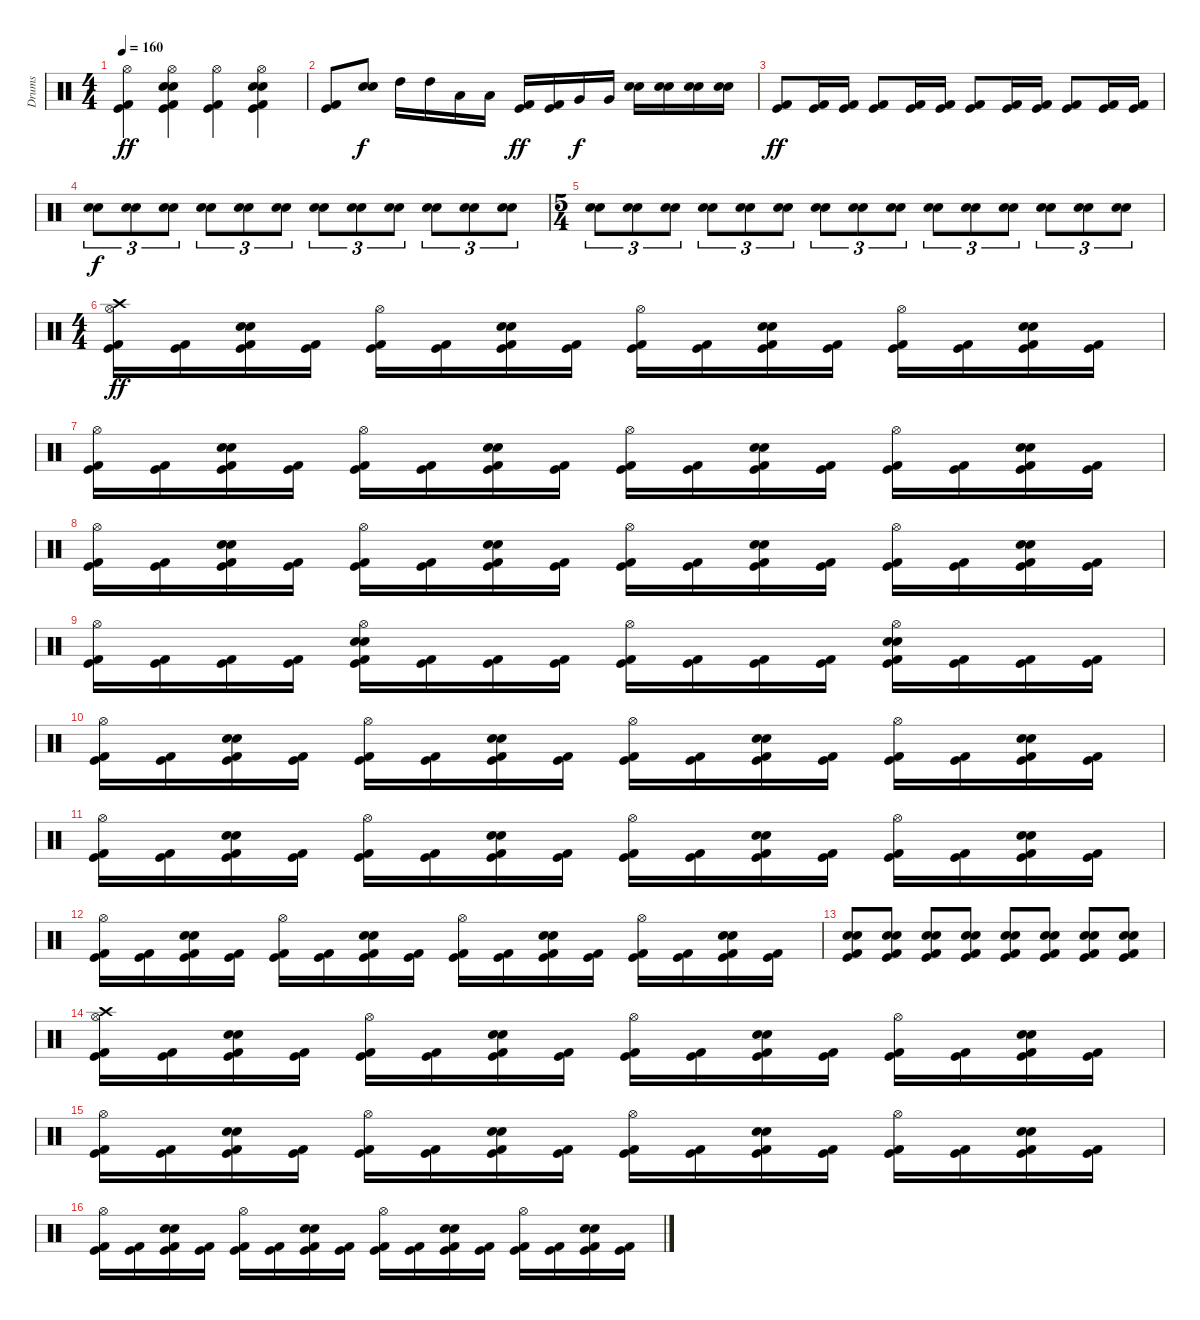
\track ("Drums" "Drums") {instrument percussion}
\staff {score}
\articulation defaults
\ts (4 4)
\tempo 160
\clef neutral
\ks c
("Hi-Hat (open)" "Kick (hit) 2" "Kick (hit)").4{dy ff} ("Hi-Hat (open)" "Snare (hit) 2" "Electric Snare (hit)" "Kick (hit) 2" "Kick (hit)").4 ("Hi-Hat (open)" "Kick (hit) 2" "Kick (hit)").4 ("Hi-Hat (open)" "Snare (hit) 2" "Electric Snare (hit)" "Kick (hit) 2" "Kick (hit)").4 |
("Kick (hit) 2" "Kick (hit)").8 ("Snare (hit) 2" "Electric Snare (hit)").8{dy f} "High Tom (hit)".16 "High Tom (hit)".16 "Low Tom (hit)".16 "Low Tom (hit)".16 ("Kick (hit) 2" "Kick (hit)").16{dy ff} ("Kick (hit) 2" "Kick (hit)").16 "Very Low Tom (hit)".16{dy f} "Very Low Tom (hit)".16 ("Electric Snare (hit)" "Snare (hit) 2").16 ("Electric Snare (hit)" "Snare (hit) 2").16 ("Electric Snare (hit)" "Snare (hit) 2").16 ("Electric Snare (hit)" "Snare (hit) 2").16 |
("Kick (hit) 2" "Kick (hit)").8{dy ff} ("Kick (hit) 2" "Kick (hit)").16 ("Kick (hit) 2" "Kick (hit)").16 ("Kick (hit) 2" "Kick (hit)").8 ("Kick (hit) 2" "Kick (hit)").16 ("Kick (hit) 2" "Kick (hit)").16 ("Kick (hit) 2" "Kick (hit)").8 ("Kick (hit) 2" "Kick (hit)").16 ("Kick (hit) 2" "Kick (hit)").16 ("Kick (hit) 2" "Kick (hit)").8 ("Kick (hit) 2" "Kick (hit)").16 ("Kick (hit) 2" "Kick (hit)").16 |
("Electric Snare (hit)" "Snare (hit) 2").8{tu (3 2) dy f} ("Electric Snare (hit)" "Snare (hit) 2").8{tu (3 2)} ("Electric Snare (hit)" "Snare (hit) 2").8{tu (3 2)} ("Electric Snare (hit)" "Snare (hit) 2").8{tu (3 2)} ("Electric Snare (hit)" "Snare (hit) 2").8{tu (3 2)} ("Electric Snare (hit)" "Snare (hit) 2").8{tu (3 2)} ("Electric Snare (hit)" "Snare (hit) 2").8{tu (3 2)} ("Electric Snare (hit)" "Snare (hit) 2").8{tu (3 2)} ("Electric Snare (hit)" "Snare (hit) 2").8{tu (3 2)} ("Electric Snare (hit)" "Snare (hit) 2").8{tu (3 2)} ("Electric Snare (hit)" "Snare (hit) 2").8{tu (3 2)} ("Electric Snare (hit)" "Snare (hit) 2").8{tu (3 2)} |
\ts (5 4)
("Electric Snare (hit)" "Snare (hit) 2").8{tu (3 2)} ("Electric Snare (hit)" "Snare (hit) 2").8{tu (3 2)} ("Electric Snare (hit)" "Snare (hit) 2").8{tu (3 2)} ("Electric Snare (hit)" "Snare (hit) 2").8{tu (3 2)} ("Electric Snare (hit)" "Snare (hit) 2").8{tu (3 2)} ("Electric Snare (hit)" "Snare (hit) 2").8{tu (3 2)} ("Electric Snare (hit)" "Snare (hit) 2").8{tu (3 2)} ("Electric Snare (hit)" "Snare (hit) 2").8{tu (3 2)} ("Electric Snare (hit)" "Snare (hit) 2").8{tu (3 2)} ("Electric Snare (hit)" "Snare (hit) 2").8{tu (3 2)} ("Electric Snare (hit)" "Snare (hit) 2").8{tu (3 2)} ("Electric Snare (hit)" "Snare (hit) 2").8{tu (3 2)} ("Electric Snare (hit)" "Snare (hit) 2").8{tu (3 2)} ("Electric Snare (hit)" "Snare (hit) 2").8{tu (3 2)} ("Electric Snare (hit)" "Snare (hit) 2").8{tu (3 2)} |
\ts (4 4)
("Hi-Hat (open)" "Crash high (hit)" "Kick (hit) 2" "Kick (hit)").16{dy ff} ("Kick (hit) 2" "Kick (hit)").16 ("Electric Snare (hit)" "Snare (hit) 2" "Kick (hit) 2" "Kick (hit)").16 ("Kick (hit) 2" "Kick (hit)").16 ("Hi-Hat (open)" "Kick (hit) 2" "Kick (hit)").16 ("Kick (hit) 2" "Kick (hit)").16 ("Electric Snare (hit)" "Snare (hit) 2" "Kick (hit) 2" "Kick (hit)").16 ("Kick (hit) 2" "Kick (hit)").16 ("Hi-Hat (open)" "Kick (hit) 2" "Kick (hit)").16 ("Kick (hit) 2" "Kick (hit)").16 ("Electric Snare (hit)" "Snare (hit) 2" "Kick (hit) 2" "Kick (hit)").16 ("Kick (hit) 2" "Kick (hit)").16 ("Hi-Hat (open)" "Kick (hit) 2" "Kick (hit)").16 ("Kick (hit) 2" "Kick (hit)").16 ("Electric Snare (hit)" "Snare (hit) 2" "Kick (hit) 2" "Kick (hit)").16 ("Kick (hit) 2" "Kick (hit)").16 |
("Hi-Hat (open)" "Kick (hit) 2" "Kick (hit)").16 ("Kick (hit) 2" "Kick (hit)").16 ("Electric Snare (hit)" "Snare (hit) 2" "Kick (hit) 2" "Kick (hit)").16 ("Kick (hit) 2" "Kick (hit)").16 ("Hi-Hat (open)" "Kick (hit) 2" "Kick (hit)").16 ("Kick (hit) 2" "Kick (hit)").16 ("Electric Snare (hit)" "Snare (hit) 2" "Kick (hit) 2" "Kick (hit)").16 ("Kick (hit) 2" "Kick (hit)").16 ("Hi-Hat (open)" "Kick (hit) 2" "Kick (hit)").16 ("Kick (hit) 2" "Kick (hit)").16 ("Electric Snare (hit)" "Snare (hit) 2" "Kick (hit) 2" "Kick (hit)").16 ("Kick (hit) 2" "Kick (hit)").16 ("Hi-Hat (open)" "Kick (hit) 2" "Kick (hit)").16 ("Kick (hit) 2" "Kick (hit)").16 ("Electric Snare (hit)" "Snare (hit) 2" "Kick (hit) 2" "Kick (hit)").16 ("Kick (hit) 2" "Kick (hit)").16 |
("Hi-Hat (open)" "Kick (hit) 2" "Kick (hit)").16 ("Kick (hit) 2" "Kick (hit)").16 ("Electric Snare (hit)" "Snare (hit) 2" "Kick (hit) 2" "Kick (hit)").16 ("Kick (hit) 2" "Kick (hit)").16 ("Hi-Hat (open)" "Kick (hit) 2" "Kick (hit)").16 ("Kick (hit) 2" "Kick (hit)").16 ("Electric Snare (hit)" "Snare (hit) 2" "Kick (hit) 2" "Kick (hit)").16 ("Kick (hit) 2" "Kick (hit)").16 ("Hi-Hat (open)" "Kick (hit) 2" "Kick (hit)").16 ("Kick (hit) 2" "Kick (hit)").16 ("Electric Snare (hit)" "Snare (hit) 2" "Kick (hit) 2" "Kick (hit)").16 ("Kick (hit) 2" "Kick (hit)").16 ("Hi-Hat (open)" "Kick (hit) 2" "Kick (hit)").16 ("Kick (hit) 2" "Kick (hit)").16 ("Electric Snare (hit)" "Snare (hit) 2" "Kick (hit) 2" "Kick (hit)").16 ("Kick (hit) 2" "Kick (hit)").16 |
("Hi-Hat (open)" "Kick (hit) 2" "Kick (hit)").16 ("Kick (hit) 2" "Kick (hit)").16 ("Kick (hit) 2" "Kick (hit)").16 ("Kick (hit) 2" "Kick (hit)").16 ("Hi-Hat (open)" "Snare (hit) 2" "Electric Snare (hit)" "Kick (hit) 2" "Kick (hit)").16 ("Kick (hit) 2" "Kick (hit)").16 ("Kick (hit) 2" "Kick (hit)").16 ("Kick (hit) 2" "Kick (hit)").16 ("Hi-Hat (open)" "Kick (hit) 2" "Kick (hit)").16 ("Kick (hit) 2" "Kick (hit)").16 ("Kick (hit) 2" "Kick (hit)").16 ("Kick (hit) 2" "Kick (hit)").16 ("Hi-Hat (open)" "Snare (hit) 2" "Electric Snare (hit)" "Kick (hit) 2" "Kick (hit)").16 ("Kick (hit) 2" "Kick (hit)").16 ("Kick (hit) 2" "Kick (hit)").16 ("Kick (hit) 2" "Kick (hit)").16 |
("Hi-Hat (open)" "Kick (hit) 2" "Kick (hit)").16 ("Kick (hit) 2" "Kick (hit)").16 ("Electric Snare (hit)" "Snare (hit) 2" "Kick (hit) 2" "Kick (hit)").16 ("Kick (hit) 2" "Kick (hit)").16 ("Hi-Hat (open)" "Kick (hit) 2" "Kick (hit)").16 ("Kick (hit) 2" "Kick (hit)").16 ("Electric Snare (hit)" "Snare (hit) 2" "Kick (hit) 2" "Kick (hit)").16 ("Kick (hit) 2" "Kick (hit)").16 ("Hi-Hat (open)" "Kick (hit) 2" "Kick (hit)").16 ("Kick (hit) 2" "Kick (hit)").16 ("Electric Snare (hit)" "Snare (hit) 2" "Kick (hit) 2" "Kick (hit)").16 ("Kick (hit) 2" "Kick (hit)").16 ("Hi-Hat (open)" "Kick (hit) 2" "Kick (hit)").16 ("Kick (hit) 2" "Kick (hit)").16 ("Electric Snare (hit)" "Snare (hit) 2" "Kick (hit) 2" "Kick (hit)").16 ("Kick (hit) 2" "Kick (hit)").16 |
("Hi-Hat (open)" "Kick (hit) 2" "Kick (hit)").16 ("Kick (hit) 2" "Kick (hit)").16 ("Electric Snare (hit)" "Snare (hit) 2" "Kick (hit) 2" "Kick (hit)").16 ("Kick (hit) 2" "Kick (hit)").16 ("Hi-Hat (open)" "Kick (hit) 2" "Kick (hit)").16 ("Kick (hit) 2" "Kick (hit)").16 ("Electric Snare (hit)" "Snare (hit) 2" "Kick (hit) 2" "Kick (hit)").16 ("Kick (hit) 2" "Kick (hit)").16 ("Hi-Hat (open)" "Kick (hit) 2" "Kick (hit)").16 ("Kick (hit) 2" "Kick (hit)").16 ("Electric Snare (hit)" "Snare (hit) 2" "Kick (hit) 2" "Kick (hit)").16 ("Kick (hit) 2" "Kick (hit)").16 ("Hi-Hat (open)" "Kick (hit) 2" "Kick (hit)").16 ("Kick (hit) 2" "Kick (hit)").16 ("Electric Snare (hit)" "Snare (hit) 2" "Kick (hit) 2" "Kick (hit)").16 ("Kick (hit) 2" "Kick (hit)").16 |
("Hi-Hat (open)" "Kick (hit) 2" "Kick (hit)").16 ("Kick (hit) 2" "Kick (hit)").16 ("Electric Snare (hit)" "Snare (hit) 2" "Kick (hit) 2" "Kick (hit)").16 ("Kick (hit) 2" "Kick (hit)").16 ("Hi-Hat (open)" "Kick (hit) 2" "Kick (hit)").16 ("Kick (hit) 2" "Kick (hit)").16 ("Electric Snare (hit)" "Snare (hit) 2" "Kick (hit) 2" "Kick (hit)").16 ("Kick (hit) 2" "Kick (hit)").16 ("Hi-Hat (open)" "Kick (hit) 2" "Kick (hit)").16 ("Kick (hit) 2" "Kick (hit)").16 ("Electric Snare (hit)" "Snare (hit) 2" "Kick (hit) 2" "Kick (hit)").16 ("Kick (hit) 2" "Kick (hit)").16 ("Hi-Hat (open)" "Kick (hit) 2" "Kick (hit)").16 ("Kick (hit) 2" "Kick (hit)").16 ("Electric Snare (hit)" "Snare (hit) 2" "Kick (hit) 2" "Kick (hit)").16 ("Kick (hit) 2" "Kick (hit)").16 |
("Snare (hit) 2" "Electric Snare (hit)" "Kick (hit) 2" "Kick (hit)").8 ("Snare (hit) 2" "Electric Snare (hit)" "Kick (hit) 2" "Kick (hit)").8 ("Snare (hit) 2" "Electric Snare (hit)" "Kick (hit) 2" "Kick (hit)").8 ("Snare (hit) 2" "Electric Snare (hit)" "Kick (hit) 2" "Kick (hit)").8 ("Snare (hit) 2" "Electric Snare (hit)" "Kick (hit) 2" "Kick (hit)").8 ("Snare (hit) 2" "Electric Snare (hit)" "Kick (hit) 2" "Kick (hit)").8 ("Snare (hit) 2" "Electric Snare (hit)" "Kick (hit) 2" "Kick (hit)").8 ("Snare (hit) 2" "Electric Snare (hit)" "Kick (hit) 2" "Kick (hit)").8 |
("Hi-Hat (open)" "Crash high (hit)" "Kick (hit) 2" "Kick (hit)").16 ("Kick (hit) 2" "Kick (hit)").16 ("Electric Snare (hit)" "Snare (hit) 2" "Kick (hit) 2" "Kick (hit)").16 ("Kick (hit) 2" "Kick (hit)").16 ("Hi-Hat (open)" "Kick (hit) 2" "Kick (hit)").16 ("Kick (hit) 2" "Kick (hit)").16 ("Electric Snare (hit)" "Snare (hit) 2" "Kick (hit) 2" "Kick (hit)").16 ("Kick (hit) 2" "Kick (hit)").16 ("Hi-Hat (open)" "Kick (hit) 2" "Kick (hit)").16 ("Kick (hit) 2" "Kick (hit)").16 ("Electric Snare (hit)" "Snare (hit) 2" "Kick (hit) 2" "Kick (hit)").16 ("Kick (hit) 2" "Kick (hit)").16 ("Hi-Hat (open)" "Kick (hit) 2" "Kick (hit)").16 ("Kick (hit) 2" "Kick (hit)").16 ("Electric Snare (hit)" "Snare (hit) 2" "Kick (hit) 2" "Kick (hit)").16 ("Kick (hit) 2" "Kick (hit)").16 |
("Hi-Hat (open)" "Kick (hit) 2" "Kick (hit)").16 ("Kick (hit) 2" "Kick (hit)").16 ("Electric Snare (hit)" "Snare (hit) 2" "Kick (hit) 2" "Kick (hit)").16 ("Kick (hit) 2" "Kick (hit)").16 ("Hi-Hat (open)" "Kick (hit) 2" "Kick (hit)").16 ("Kick (hit) 2" "Kick (hit)").16 ("Electric Snare (hit)" "Snare (hit) 2" "Kick (hit) 2" "Kick (hit)").16 ("Kick (hit) 2" "Kick (hit)").16 ("Hi-Hat (open)" "Kick (hit) 2" "Kick (hit)").16 ("Kick (hit) 2" "Kick (hit)").16 ("Electric Snare (hit)" "Snare (hit) 2" "Kick (hit) 2" "Kick (hit)").16 ("Kick (hit) 2" "Kick (hit)").16 ("Hi-Hat (open)" "Kick (hit) 2" "Kick (hit)").16 ("Kick (hit) 2" "Kick (hit)").16 ("Electric Snare (hit)" "Snare (hit) 2" "Kick (hit) 2" "Kick (hit)").16 ("Kick (hit) 2" "Kick (hit)").16 |
("Hi-Hat (open)" "Kick (hit) 2" "Kick (hit)").16 ("Kick (hit) 2" "Kick (hit)").16 ("Electric Snare (hit)" "Snare (hit) 2" "Kick (hit) 2" "Kick (hit)").16 ("Kick (hit) 2" "Kick (hit)").16 ("Hi-Hat (open)" "Kick (hit) 2" "Kick (hit)").16 ("Kick (hit) 2" "Kick (hit)").16 ("Electric Snare (hit)" "Snare (hit) 2" "Kick (hit) 2" "Kick (hit)").16 ("Kick (hit) 2" "Kick (hit)").16 ("Hi-Hat (open)" "Kick (hit) 2" "Kick (hit)").16 ("Kick (hit) 2" "Kick (hit)").16 ("Electric Snare (hit)" "Snare (hit) 2" "Kick (hit) 2" "Kick (hit)").16 ("Kick (hit) 2" "Kick (hit)").16 ("Hi-Hat (open)" "Kick (hit) 2" "Kick (hit)").16 ("Kick (hit) 2" "Kick (hit)").16 ("Electric Snare (hit)" "Snare (hit) 2" "Kick (hit) 2" "Kick (hit)").16 ("Kick (hit) 2" "Kick (hit)").16
